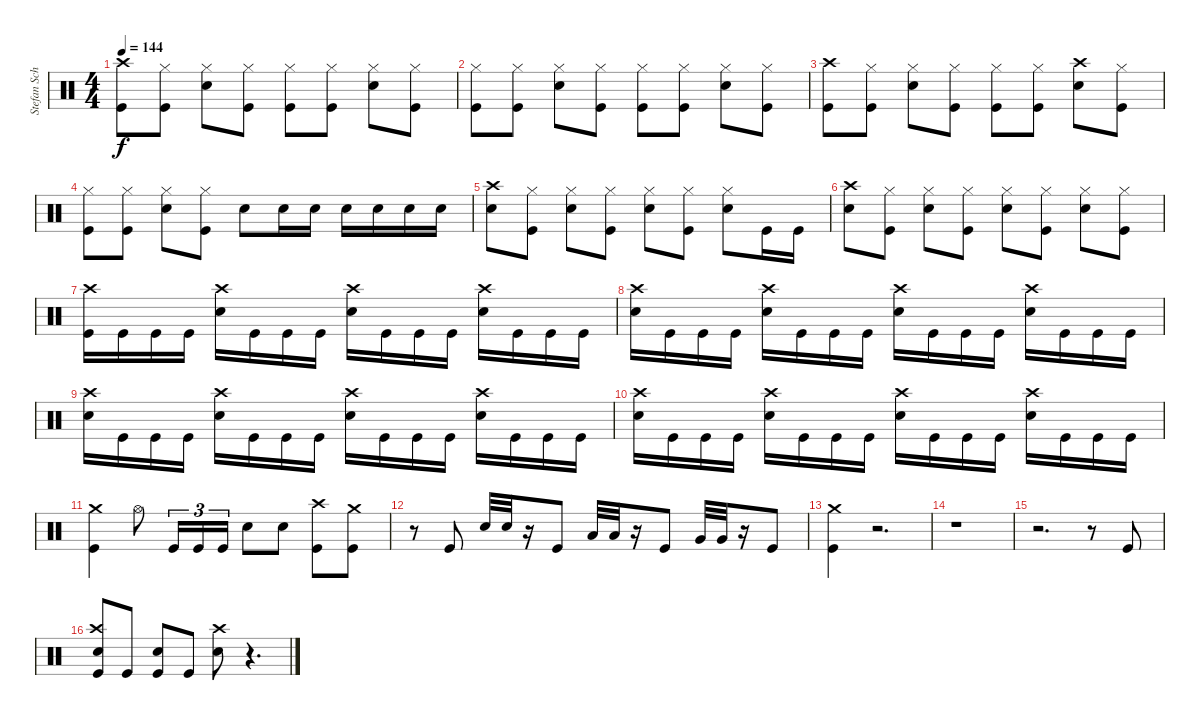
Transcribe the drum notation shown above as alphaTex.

\track ("Stefan Schwarzmann" "Stefan Sch") {instrument percussion}
\staff {score}
\articulation defaults
\ts (4 4)
\tempo 144
\clef neutral
\ks c
("Kick (hit)" "Crash high (hit)").8{dy f} ("Kick (hit)" "Hi-Hat (closed)").8 ("Snare (hit) 2" "Hi-Hat (closed)").8 ("Kick (hit)" "Hi-Hat (closed)").8 ("Kick (hit)" "Hi-Hat (closed)").8 ("Kick (hit)" "Hi-Hat (closed)").8 ("Snare (hit) 2" "Hi-Hat (closed)").8 ("Kick (hit)" "Hi-Hat (closed)").8 |
("Kick (hit)" "Hi-Hat (closed)").8 ("Kick (hit)" "Hi-Hat (closed)").8 ("Snare (hit) 2" "Hi-Hat (closed)").8 ("Kick (hit)" "Hi-Hat (closed)").8 ("Kick (hit)" "Hi-Hat (closed)").8 ("Kick (hit)" "Hi-Hat (closed)").8 ("Snare (hit) 2" "Hi-Hat (closed)").8 ("Kick (hit)" "Hi-Hat (closed)").8 |
("Kick (hit)" "Crash high (hit)").8 ("Kick (hit)" "Hi-Hat (closed)").8 ("Snare (hit) 2" "Hi-Hat (closed)").8 ("Kick (hit)" "Hi-Hat (closed)").8 ("Kick (hit)" "Hi-Hat (closed)").8 ("Kick (hit)" "Hi-Hat (closed)").8 ("Snare (hit) 2" "Crash high (hit)").8 ("Kick (hit)" "Hi-Hat (closed)").8 |
("Kick (hit)" "Hi-Hat (closed)").8 ("Kick (hit)" "Hi-Hat (closed)").8 ("Snare (hit) 2" "Hi-Hat (closed)").8 ("Kick (hit)" "Hi-Hat (closed)").8 "Snare (hit) 2".8 "Snare (hit) 2".16 "Snare (hit) 2".16 "Snare (hit) 2".16 "Snare (hit) 2".16 "Snare (hit) 2".16 "Snare (hit) 2".16 |
("Crash high (hit)" "Snare (hit) 2").8 ("Kick (hit)" "Hi-Hat (closed)").8 ("Snare (hit) 2" "Hi-Hat (closed)").8 ("Kick (hit)" "Hi-Hat (closed)").8 ("Snare (hit) 2" "Hi-Hat (closed)").8 ("Kick (hit)" "Hi-Hat (closed)").8 ("Snare (hit) 2" "Hi-Hat (closed)").8 "Kick (hit)".16 "Kick (hit)".16 |
("Crash high (hit)" "Snare (hit) 2").8 ("Kick (hit)" "Hi-Hat (closed)").8 ("Snare (hit) 2" "Hi-Hat (closed)").8 ("Kick (hit)" "Hi-Hat (closed)").8 ("Snare (hit) 2" "Hi-Hat (closed)").8 ("Kick (hit)" "Hi-Hat (closed)").8 ("Snare (hit) 2" "Hi-Hat (closed)").8 ("Kick (hit)" "Hi-Hat (closed)").8 |
("Kick (hit)" "Crash high (hit)").16 "Kick (hit)".16 "Kick (hit)".16 "Kick (hit)".16 ("Snare (hit) 2" "Crash high (hit)").16 "Kick (hit)".16 "Kick (hit)".16 "Kick (hit)".16 ("Snare (hit) 2" "Crash high (hit)").16 "Kick (hit)".16 "Kick (hit)".16 "Kick (hit)".16 ("Snare (hit) 2" "Crash high (hit)").16 "Kick (hit)".16 "Kick (hit)".16 "Kick (hit)".16 |
("Snare (hit) 2" "Crash high (hit)").16 "Kick (hit)".16 "Kick (hit)".16 "Kick (hit)".16 ("Snare (hit) 2" "Crash high (hit)").16 "Kick (hit)".16 "Kick (hit)".16 "Kick (hit)".16 ("Snare (hit) 2" "Crash high (hit)").16 "Kick (hit)".16 "Kick (hit)".16 "Kick (hit)".16 ("Snare (hit) 2" "Crash high (hit)").16 "Kick (hit)".16 "Kick (hit)".16 "Kick (hit)".16 |
("Snare (hit) 2" "Crash high (hit)").16 "Kick (hit)".16 "Kick (hit)".16 "Kick (hit)".16 ("Snare (hit) 2" "Crash high (hit)").16 "Kick (hit)".16 "Kick (hit)".16 "Kick (hit)".16 ("Snare (hit) 2" "Crash high (hit)").16 "Kick (hit)".16 "Kick (hit)".16 "Kick (hit)".16 ("Snare (hit) 2" "Crash high (hit)").16 "Kick (hit)".16 "Kick (hit)".16 "Kick (hit)".16 |
("Snare (hit) 2" "Crash high (hit)").16 "Kick (hit)".16 "Kick (hit)".16 "Kick (hit)".16 ("Snare (hit) 2" "Crash high (hit)").16 "Kick (hit)".16 "Kick (hit)".16 "Kick (hit)".16 ("Snare (hit) 2" "Crash high (hit)").16 "Kick (hit)".16 "Kick (hit)".16 "Kick (hit)".16 ("Snare (hit) 2" "Crash high (hit)").16 "Kick (hit)".16 "Kick (hit)".16 "Kick (hit)".16 |
("Kick (hit)" "Crash medium (hit)").4 "Hi-Hat (open)".8 "Kick (hit)".16{tu (3 2)} "Kick (hit)".16{tu (3 2)} "Kick (hit)".16{tu (3 2)} "Snare (hit) 2".8 "Snare (hit) 2".8 ("Kick (hit)" "Crash high (hit)").8 ("Kick (hit)" "Crash medium (hit)").8 |
r.8 "Kick (hit)".8 "Snare (hit) 2".32 "Snare (hit) 2".32 r.16 "Kick (hit)".8 "Low Tom (hit)".32 "Low Tom (hit)".32 r.16 "Kick (hit)".8 "Very Low Tom (hit)".32 "Very Low Tom (hit)".32 r.16 "Kick (hit)".8 |
("Kick (hit)" "Crash medium (hit)").4 r.2{d} |
r.1 |
r.2{d} r.8 "Kick (hit)".8 |
("Snare (hit) 2" "Kick (hit)" "Crash high (hit)").8 "Kick (hit)".8 ("Snare (hit) 2" "Kick (hit)").8 "Kick (hit)".8 ("Snare (hit) 2" "Crash high (hit)").8 r.4{d}
